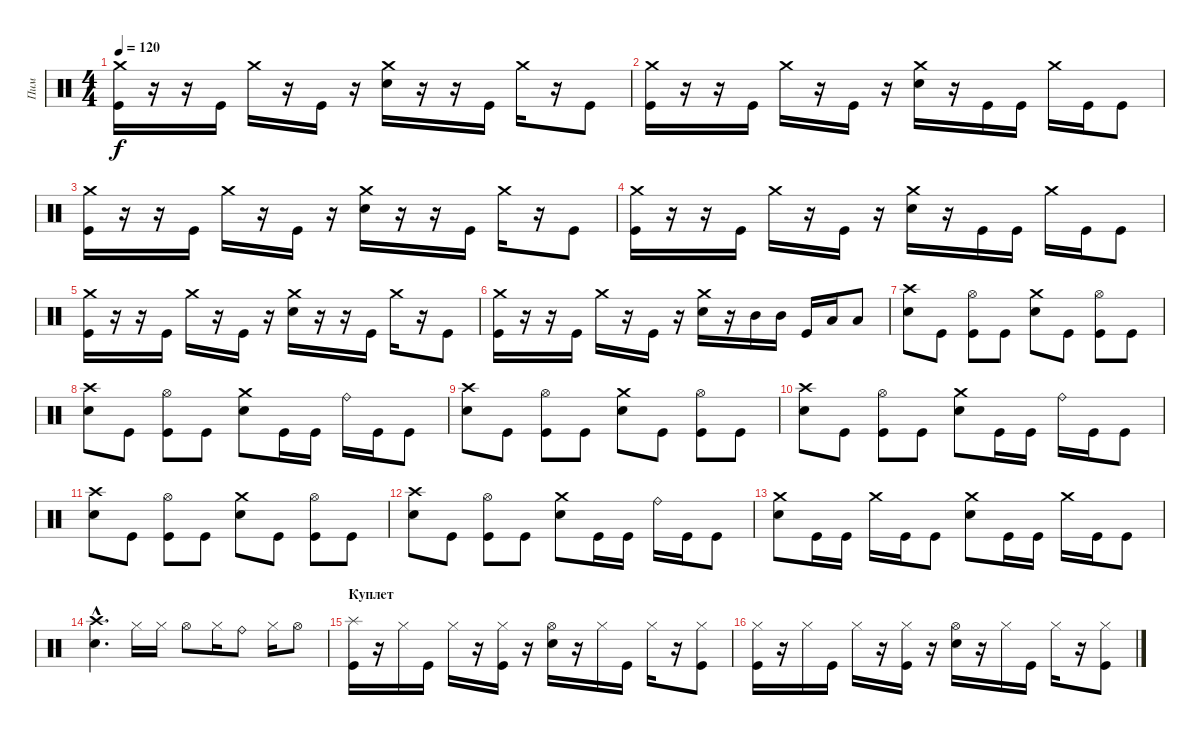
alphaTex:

\track ("Пим" "Пим") {instrument percussion}
\staff {score}
\articulation defaults
\ts (4 4)
\tempo 120
\clef neutral
\ks c
("Crash medium (hit)" "Kick (hit)").16{dy f} r.16 r.16 "Kick (hit)".16 "Crash medium (hit)".16 r.16 "Kick (hit)".16 r.16 ("Crash medium (hit)" "Snare (hit) 2").16 r.16 r.16 "Kick (hit)".16 "Crash medium (hit)".16 r.16 "Kick (hit)".8 |
("Crash medium (hit)" "Kick (hit)").16 r.16 r.16 "Kick (hit)".16 "Crash medium (hit)".16 r.16 "Kick (hit)".16 r.16 ("Crash medium (hit)" "Snare (hit) 2").16 r.16 "Kick (hit)".16 "Kick (hit)".16 "Crash medium (hit)".16 "Kick (hit)".16 "Kick (hit)".8 |
("Crash medium (hit)" "Kick (hit)").16 r.16 r.16 "Kick (hit)".16 "Crash medium (hit)".16 r.16 "Kick (hit)".16 r.16 ("Crash medium (hit)" "Snare (hit) 2").16 r.16 r.16 "Kick (hit)".16 "Crash medium (hit)".16 r.16 "Kick (hit)".8 |
("Crash medium (hit)" "Kick (hit)").16 r.16 r.16 "Kick (hit)".16 "Crash medium (hit)".16 r.16 "Kick (hit)".16 r.16 ("Crash medium (hit)" "Snare (hit) 2").16 r.16 "Kick (hit)".16 "Kick (hit)".16 "Crash medium (hit)".16 "Kick (hit)".16 "Kick (hit)".8 |
("Crash medium (hit)" "Kick (hit)").16 r.16 r.16 "Kick (hit)".16 "Crash medium (hit)".16 r.16 "Kick (hit)".16 r.16 ("Crash medium (hit)" "Snare (hit) 2").16 r.16 r.16 "Kick (hit)".16 "Crash medium (hit)".16 r.16 "Kick (hit)".8 |
("Crash medium (hit)" "Kick (hit)").16 r.16 r.16 "Kick (hit)".16 "Crash medium (hit)".16 r.16 "Kick (hit)".16 r.16 ("Crash medium (hit)" "Snare (hit) 2").16 r.16 "Mid Tom (hit)".16 "Mid Tom (hit)".16 "Kick (hit)".16 "Low Tom (hit)".16 "Low Tom (hit)".8 |
("Crash high (hit)" "Snare (hit) 2").8 "Kick (hit)".8 ("Hi-Hat (open)" "Kick (hit)").8 "Kick (hit)".8 ("Crash medium (hit)" "Snare (hit) 2").8 "Kick (hit)".8 ("Hi-Hat (open)" "Kick (hit)").8 "Kick (hit)".8 |
("Crash high (hit)" "Snare (hit) 2").8 "Kick (hit)".8 ("Hi-Hat (open)" "Kick (hit)").8 "Kick (hit)".8 ("Crash medium (hit)" "Snare (hit) 2").8 "Kick (hit)".16 "Kick (hit)".16 "Ride (bell)".16 "Kick (hit)".16 "Kick (hit)".8 |
("Crash high (hit)" "Snare (hit) 2").8 "Kick (hit)".8 ("Hi-Hat (open)" "Kick (hit)").8 "Kick (hit)".8 ("Crash medium (hit)" "Snare (hit) 2").8 "Kick (hit)".8 ("Hi-Hat (open)" "Kick (hit)").8 "Kick (hit)".8 |
("Crash high (hit)" "Snare (hit) 2").8 "Kick (hit)".8 ("Hi-Hat (open)" "Kick (hit)").8 "Kick (hit)".8 ("Crash medium (hit)" "Snare (hit) 2").8 "Kick (hit)".16 "Kick (hit)".16 "Ride (bell)".16 "Kick (hit)".16 "Kick (hit)".8 |
("Crash high (hit)" "Snare (hit) 2").8 "Kick (hit)".8 ("Hi-Hat (open)" "Kick (hit)").8 "Kick (hit)".8 ("Crash medium (hit)" "Snare (hit) 2").8 "Kick (hit)".8 ("Hi-Hat (open)" "Kick (hit)").8 "Kick (hit)".8 |
("Crash high (hit)" "Snare (hit) 2").8 "Kick (hit)".8 ("Hi-Hat (open)" "Kick (hit)").8 "Kick (hit)".8 ("Crash medium (hit)" "Snare (hit) 2").8 "Kick (hit)".16 "Kick (hit)".16 "Ride (bell)".16 "Kick (hit)".16 "Kick (hit)".8 |
("Crash medium (hit)" "Snare (hit) 2").8 "Kick (hit)".16 "Kick (hit)".16 "Crash medium (hit)".16 "Kick (hit)".16 "Kick (hit)".8 ("Crash medium (hit)" "Snare (hit) 2").8 "Kick (hit)".16 "Kick (hit)".16 "Crash medium (hit)".16 "Kick (hit)".16 "Kick (hit)".8 |
("Crash high (hit)"{hac} "Snare (hit) 2"{hac}).4{d} "Hi-Hat (closed)".16 "Hi-Hat (closed)".16 "Hi-Hat (open)".8 "Hi-Hat (closed)".16 "Ride (bell)".8 "Hi-Hat (closed)".16 "Hi-Hat (open)".8 |
\section ("" "Куплет")
("Splash (hit)" "Kick (hit)").16 r.16 "Hi-Hat (closed)".16 "Kick (hit)".16 "Hi-Hat (closed)".16 r.16 ("Hi-Hat (closed)" "Kick (hit)").16 r.16 ("Hi-Hat (open)" "Snare (hit) 2").16 r.16 "Hi-Hat (closed)".16 "Kick (hit)".16 "Hi-Hat (closed)".16 r.16 ("Hi-Hat (closed)" "Kick (hit)").8 |
("Hi-Hat (closed)" "Kick (hit)").16 r.16 "Hi-Hat (closed)".16 "Kick (hit)".16 "Hi-Hat (closed)".16 r.16 ("Hi-Hat (closed)" "Kick (hit)").16 r.16 ("Hi-Hat (open)" "Snare (hit) 2").16 r.16 "Hi-Hat (closed)".16 "Kick (hit)".16 "Hi-Hat (closed)".16 r.16 ("Hi-Hat (closed)" "Kick (hit)").8
